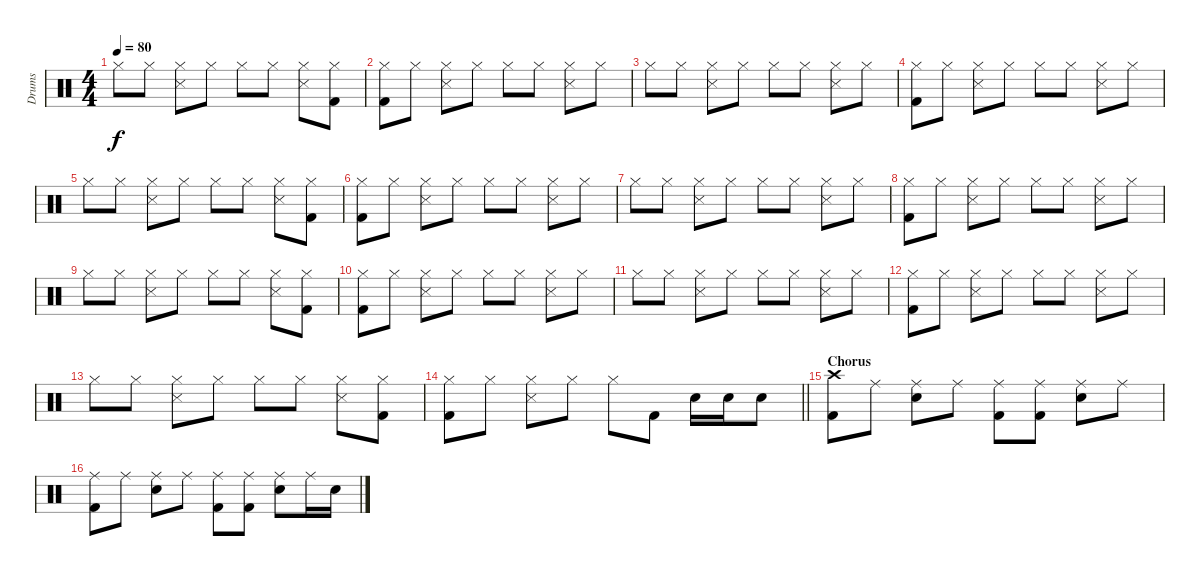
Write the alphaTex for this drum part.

\track ("Drums" "Drums") {instrument percussion}
\staff {score}
\articulation defaults
\ts (4 4)
\tempo 80
\clef neutral
\ks c "Hi-Hat (closed)".8{dy f} "Hi-Hat (closed)".8
("Hi-Hat (closed)" "Snare (side stick) 3").8 "Hi-Hat (closed)".8 "Hi-Hat (closed)".8 "Hi-Hat (closed)".8 ("Hi-Hat (closed)" "Snare (side stick) 3").8 ("Hi-Hat (closed)" "Kick (hit) 2").8 |
("Hi-Hat (closed)" "Kick (hit) 2").8 "Hi-Hat (closed)".8 ("Hi-Hat (closed)" "Snare (side stick) 3").8 "Hi-Hat (closed)".8 "Hi-Hat (closed)".8 "Hi-Hat (closed)".8 ("Hi-Hat (closed)" "Snare (side stick) 3").8 "Hi-Hat (closed)".8 |
"Hi-Hat (closed)".8 "Hi-Hat (closed)".8 ("Hi-Hat (closed)" "Snare (side stick) 3").8 "Hi-Hat (closed)".8 "Hi-Hat (closed)".8 "Hi-Hat (closed)".8 ("Hi-Hat (closed)" "Snare (side stick) 3").8 "Hi-Hat (closed)".8 |
("Hi-Hat (closed)" "Kick (hit) 2").8 "Hi-Hat (closed)".8 ("Hi-Hat (closed)" "Snare (side stick) 3").8 "Hi-Hat (closed)".8 "Hi-Hat (closed)".8 "Hi-Hat (closed)".8 ("Hi-Hat (closed)" "Snare (side stick) 3").8 "Hi-Hat (closed)".8 |
"Hi-Hat (closed)".8 "Hi-Hat (closed)".8 ("Hi-Hat (closed)" "Snare (side stick) 3").8 "Hi-Hat (closed)".8 "Hi-Hat (closed)".8 "Hi-Hat (closed)".8 ("Hi-Hat (closed)" "Snare (side stick) 3").8 ("Hi-Hat (closed)" "Kick (hit) 2").8 |
("Hi-Hat (closed)" "Kick (hit) 2").8 "Hi-Hat (closed)".8 ("Hi-Hat (closed)" "Snare (side stick) 3").8 "Hi-Hat (closed)".8 "Hi-Hat (closed)".8 "Hi-Hat (closed)".8 ("Hi-Hat (closed)" "Snare (side stick) 3").8 "Hi-Hat (closed)".8 |
"Hi-Hat (closed)".8 "Hi-Hat (closed)".8 ("Hi-Hat (closed)" "Snare (side stick) 3").8 "Hi-Hat (closed)".8 "Hi-Hat (closed)".8 "Hi-Hat (closed)".8 ("Hi-Hat (closed)" "Snare (side stick) 3").8 "Hi-Hat (closed)".8 |
("Hi-Hat (closed)" "Kick (hit) 2").8 "Hi-Hat (closed)".8 ("Hi-Hat (closed)" "Snare (side stick) 3").8 "Hi-Hat (closed)".8 "Hi-Hat (closed)".8 "Hi-Hat (closed)".8 ("Hi-Hat (closed)" "Snare (side stick) 3").8 "Hi-Hat (closed)".8 |
"Hi-Hat (closed)".8 "Hi-Hat (closed)".8 ("Hi-Hat (closed)" "Snare (side stick) 3").8 "Hi-Hat (closed)".8 "Hi-Hat (closed)".8 "Hi-Hat (closed)".8 ("Hi-Hat (closed)" "Snare (side stick) 3").8 ("Hi-Hat (closed)" "Kick (hit) 2").8 |
("Hi-Hat (closed)" "Kick (hit) 2").8 "Hi-Hat (closed)".8 ("Hi-Hat (closed)" "Snare (side stick) 3").8 "Hi-Hat (closed)".8 "Hi-Hat (closed)".8 "Hi-Hat (closed)".8 ("Hi-Hat (closed)" "Snare (side stick) 3").8 "Hi-Hat (closed)".8 |
"Hi-Hat (closed)".8 "Hi-Hat (closed)".8 ("Hi-Hat (closed)" "Snare (side stick) 3").8 "Hi-Hat (closed)".8 "Hi-Hat (closed)".8 "Hi-Hat (closed)".8 ("Hi-Hat (closed)" "Snare (side stick) 3").8 "Hi-Hat (closed)".8 |
("Hi-Hat (closed)" "Kick (hit) 2").8 "Hi-Hat (closed)".8 ("Hi-Hat (closed)" "Snare (side stick) 3").8 "Hi-Hat (closed)".8 "Hi-Hat (closed)".8 "Hi-Hat (closed)".8 ("Hi-Hat (closed)" "Snare (side stick) 3").8 "Hi-Hat (closed)".8 |
"Hi-Hat (closed)".8 "Hi-Hat (closed)".8 ("Hi-Hat (closed)" "Snare (side stick) 3").8 "Hi-Hat (closed)".8 "Hi-Hat (closed)".8 "Hi-Hat (closed)".8 ("Hi-Hat (closed)" "Snare (side stick) 3").8 ("Hi-Hat (closed)" "Kick (hit) 2").8 |
\barLineRight lightlight
("Hi-Hat (closed)" "Kick (hit) 2").8 "Hi-Hat (closed)".8 ("Hi-Hat (closed)" "Snare (side stick) 3").8 "Hi-Hat (closed)".8 "Hi-Hat (closed)".8 "Kick (hit) 2".8 "Electric Snare (hit)".16 "Electric Snare (hit)".16 "Electric Snare (hit)".8 |
\section ("" "Chorus")
("Crash high (hit)" "Kick (hit) 2").8 "Ride (middle)".8 ("Ride (middle)" "Electric Snare (hit)").8 "Ride (middle)".8 ("Ride (middle)" "Kick (hit) 2").8 ("Ride (middle)" "Kick (hit) 2").8 ("Ride (middle)" "Electric Snare (hit)").8 "Ride (middle)".8 |
("Ride (middle)" "Kick (hit) 2").8 "Ride (middle)".8 ("Ride (middle)" "Electric Snare (hit)").8 "Ride (middle)".8 ("Ride (middle)" "Kick (hit) 2").8 ("Ride (middle)" "Kick (hit) 2").8 ("Ride (middle)" "Electric Snare (hit)").8 "Ride (middle)".16 "Electric Snare (hit)".16
